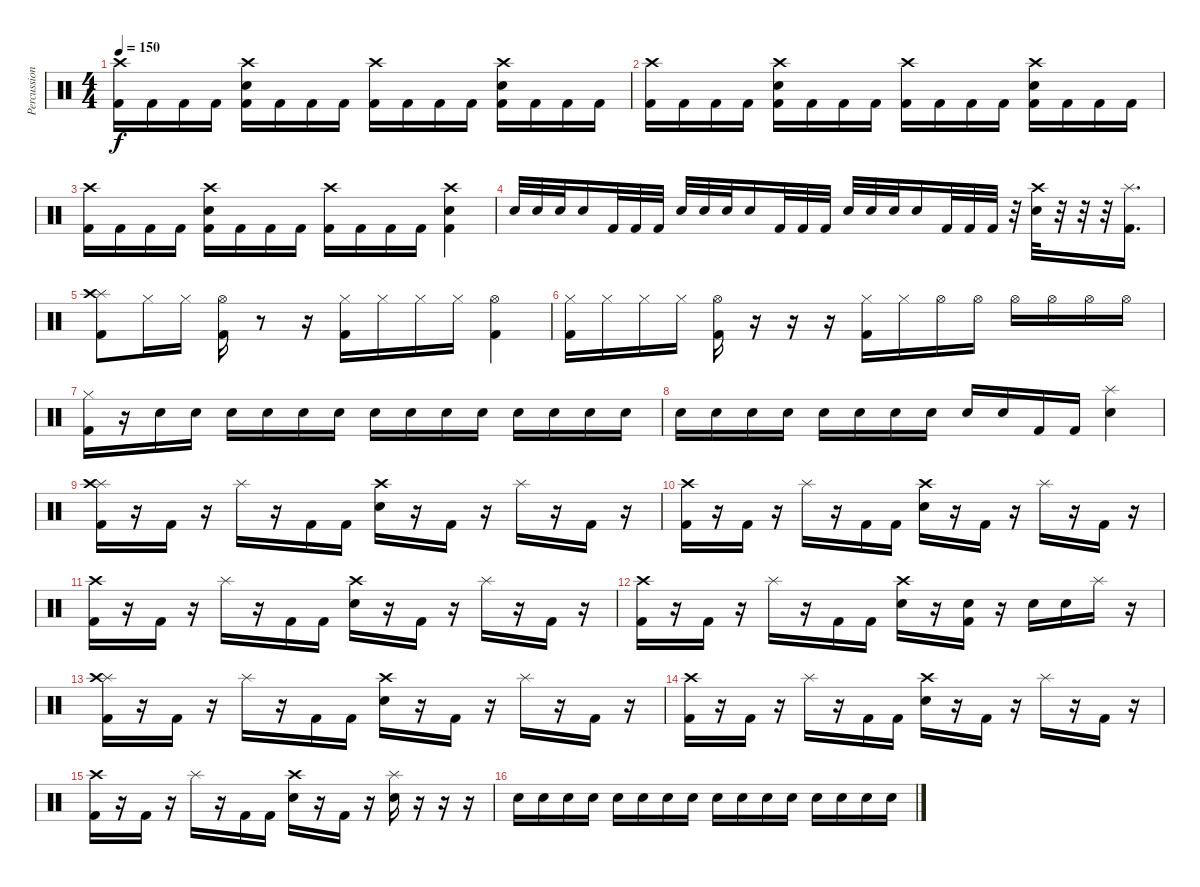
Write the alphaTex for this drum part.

\track ("Percussion" "Percussion") {instrument percussion}
\staff {score}
\articulation defaults
\ts (4 4)
\tempo 150
\clef neutral
\ks c
("Crash high (hit)" "Kick (hit) 2").16{dy f} "Kick (hit) 2".16 "Kick (hit) 2".16 "Kick (hit) 2".16 ("Crash high (hit)" "Snare (hit) 2" "Kick (hit) 2").16 "Kick (hit) 2".16 "Kick (hit) 2".16 "Kick (hit) 2".16 ("Crash high (hit)" "Kick (hit) 2").16 "Kick (hit) 2".16 "Kick (hit) 2".16 "Kick (hit) 2".16 ("Crash high (hit)" "Snare (hit) 2" "Kick (hit) 2").16 "Kick (hit) 2".16 "Kick (hit) 2".16 "Kick (hit) 2".16 |
("Crash high (hit)" "Kick (hit) 2").16 "Kick (hit) 2".16 "Kick (hit) 2".16 "Kick (hit) 2".16 ("Crash high (hit)" "Snare (hit) 2" "Kick (hit) 2").16 "Kick (hit) 2".16 "Kick (hit) 2".16 "Kick (hit) 2".16 ("Crash high (hit)" "Kick (hit) 2").16 "Kick (hit) 2".16 "Kick (hit) 2".16 "Kick (hit) 2".16 ("Crash high (hit)" "Snare (hit) 2" "Kick (hit) 2").16 "Kick (hit) 2".16 "Kick (hit) 2".16 "Kick (hit) 2".16 |
("Crash high (hit)" "Kick (hit) 2").16 "Kick (hit) 2".16 "Kick (hit) 2".16 "Kick (hit) 2".16 ("Crash high (hit)" "Snare (hit) 2" "Kick (hit) 2").16 "Kick (hit) 2".16 "Kick (hit) 2".16 "Kick (hit) 2".16 ("Crash high (hit)" "Kick (hit) 2").16 "Kick (hit) 2".16 "Kick (hit) 2".16 "Kick (hit) 2".16 ("Crash high (hit)" "Snare (hit) 2" "Kick (hit) 2").4 |
"Snare (hit) 2".32 "Snare (hit) 2".32 "Snare (hit) 2".32 "Snare (hit) 2".16 "Kick (hit) 2".32 "Kick (hit) 2".32 "Kick (hit) 2".32 "Snare (hit) 2".32 "Snare (hit) 2".32 "Snare (hit) 2".32 "Snare (hit) 2".16 "Kick (hit) 2".32 "Kick (hit) 2".32 "Kick (hit) 2".32 "Snare (hit) 2".32 "Snare (hit) 2".32 "Snare (hit) 2".32 "Snare (hit) 2".16 "Kick (hit) 2".32 "Kick (hit) 2".32 "Kick (hit) 2".32 r.32 ("Crash high (hit)" "Snare (hit) 2").32 r.32 r.32 r.32 ("Splash (hit)" "Kick (hit) 2").16{d} |
("Splash (hit)" "Crash high (hit)" "Kick (hit) 2").8 "Hi-Hat (closed)".16 "Hi-Hat (closed)".16 ("Hi-Hat (open)" "Kick (hit) 2").16 r.8 r.16 ("Hi-Hat (closed)" "Kick (hit) 2").16 "Hi-Hat (closed)".16 "Hi-Hat (closed)".16 "Hi-Hat (closed)".16 ("Hi-Hat (open)" "Kick (hit) 2").4 |
("Hi-Hat (closed)" "Kick (hit) 2").16 "Hi-Hat (closed)".16 "Hi-Hat (closed)".16 "Hi-Hat (closed)".16 ("Hi-Hat (open)" "Kick (hit) 2").16 r.16 r.16 r.16 ("Hi-Hat (closed)" "Kick (hit) 2").16 "Hi-Hat (closed)".16 "Hi-Hat (open)".16 "Hi-Hat (open)".16 "Hi-Hat (open)".16 "Hi-Hat (open)".16 "Hi-Hat (open)".16 "Hi-Hat (open)".16 |
("Hi-Hat (closed)" "Kick (hit) 2").16 r.16 "Snare (hit) 2".16 "Snare (hit) 2".16 "Snare (hit) 2".16 "Snare (hit) 2".16 "Snare (hit) 2".16 "Snare (hit) 2".16 "Snare (hit) 2".16 "Snare (hit) 2".16 "Snare (hit) 2".16 "Snare (hit) 2".16 "Snare (hit) 2".16 "Snare (hit) 2".16 "Snare (hit) 2".16 "Snare (hit) 2".16 |
"Snare (hit) 2".16 "Snare (hit) 2".16 "Snare (hit) 2".16 "Snare (hit) 2".16 "Snare (hit) 2".16 "Snare (hit) 2".16 "Snare (hit) 2".16 "Snare (hit) 2".16 "Snare (hit) 2".16 "Snare (hit) 2".16 "Kick (hit) 2".16 "Kick (hit) 2".16 ("Splash (hit)" "Snare (hit) 2").4 |
("Splash (hit)" "Crash high (hit)" "Kick (hit) 2").16 r.16 "Kick (hit) 2".16 r.16 "Splash (hit)".16 r.16 "Kick (hit) 2".16 "Kick (hit) 2".16 ("Crash high (hit)" "Snare (hit) 2").16 r.16 "Kick (hit) 2".16 r.16 "Splash (hit)".16 r.16 "Kick (hit) 2".16 r.16 |
("Crash high (hit)" "Kick (hit) 2").16 r.16 "Kick (hit) 2".16 r.16 "Splash (hit)".16 r.16 "Kick (hit) 2".16 "Kick (hit) 2".16 ("Crash high (hit)" "Snare (hit) 2").16 r.16 "Kick (hit) 2".16 r.16 "Splash (hit)".16 r.16 "Kick (hit) 2".16 r.16 |
("Crash high (hit)" "Kick (hit) 2").16 r.16 "Kick (hit) 2".16 r.16 "Splash (hit)".16 r.16 "Kick (hit) 2".16 "Kick (hit) 2".16 ("Crash high (hit)" "Snare (hit) 2").16 r.16 "Kick (hit) 2".16 r.16 "Splash (hit)".16 r.16 "Kick (hit) 2".16 r.16 |
("Crash high (hit)" "Kick (hit) 2").16 r.16 "Kick (hit) 2".16 r.16 "Splash (hit)".16 r.16 "Kick (hit) 2".16 "Kick (hit) 2".16 ("Crash high (hit)" "Snare (hit) 2").16 r.16 ("Snare (hit) 2" "Kick (hit) 2").16 r.16 "Snare (hit) 2".16 "Snare (hit) 2".16 "Splash (hit)".16 r.16 |
("Splash (hit)" "Crash high (hit)" "Kick (hit) 2").16 r.16 "Kick (hit) 2".16 r.16 "Splash (hit)".16 r.16 "Kick (hit) 2".16 "Kick (hit) 2".16 ("Crash high (hit)" "Snare (hit) 2").16 r.16 "Kick (hit) 2".16 r.16 "Splash (hit)".16 r.16 "Kick (hit) 2".16 r.16 |
("Crash high (hit)" "Kick (hit) 2").16 r.16 "Kick (hit) 2".16 r.16 "Splash (hit)".16 r.16 "Kick (hit) 2".16 "Kick (hit) 2".16 ("Crash high (hit)" "Snare (hit) 2").16 r.16 "Kick (hit) 2".16 r.16 "Splash (hit)".16 r.16 "Kick (hit) 2".16 r.16 |
("Crash high (hit)" "Kick (hit) 2").16 r.16 "Kick (hit) 2".16 r.16 "Splash (hit)".16 r.16 "Kick (hit) 2".16 "Kick (hit) 2".16 ("Crash high (hit)" "Snare (hit) 2").16 r.16 "Kick (hit) 2".16 r.16 ("Splash (hit)" "Snare (hit) 2").16 r.16 r.16 r.16 |
"Snare (hit) 2".16 "Snare (hit) 2".16 "Snare (hit) 2".16 "Snare (hit) 2".16 "Snare (hit) 2".16 "Snare (hit) 2".16 "Snare (hit) 2".16 "Snare (hit) 2".16 "Snare (hit) 2".16 "Snare (hit) 2".16 "Snare (hit) 2".16 "Snare (hit) 2".16 "Snare (hit) 2".16 "Snare (hit) 2".16 "Snare (hit) 2".16 "Snare (hit) 2".16
